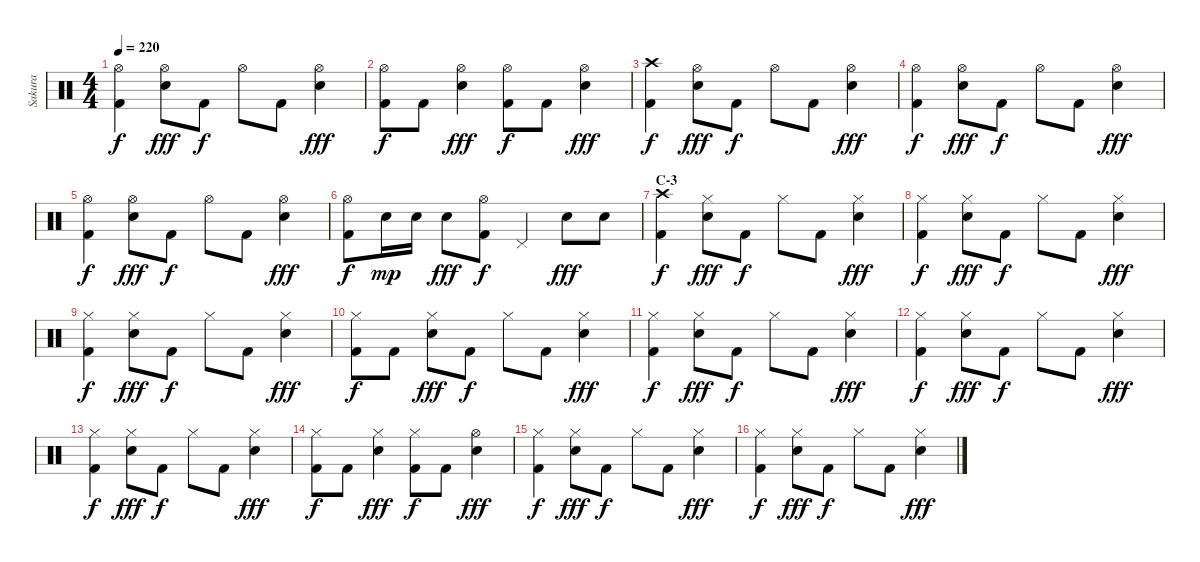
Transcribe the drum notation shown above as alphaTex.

\track ("Sakura" "Sakura") {instrument percussion}
\staff {score}
\articulation defaults
\ts (4 4)
\tempo 220
\clef neutral
\ks c
("Hi-Hat (open)" "Kick (hit) 2").4{dy f} ("Hi-Hat (open)" "Electric Snare (hit)").8{dy fff} "Kick (hit) 2".8{dy f} "Hi-Hat (open)".8 "Kick (hit) 2".8 ("Hi-Hat (open)" "Electric Snare (hit)").4{dy fff} |
("Hi-Hat (open)" "Kick (hit) 2").8{dy f} "Kick (hit) 2".8 ("Hi-Hat (open)" "Electric Snare (hit)").4{dy fff} ("Hi-Hat (open)" "Kick (hit) 2").8{dy f} "Kick (hit) 2".8 ("Hi-Hat (open)" "Electric Snare (hit)").4{dy fff} |
("Crash high (hit)" "Kick (hit) 2").4{dy f} ("Hi-Hat (open)" "Electric Snare (hit)").8{dy fff} "Kick (hit) 2".8{dy f} "Hi-Hat (open)".8 "Kick (hit) 2".8 ("Hi-Hat (open)" "Electric Snare (hit)").4{dy fff} |
("Hi-Hat (open)" "Kick (hit) 2").4{dy f} ("Hi-Hat (open)" "Electric Snare (hit)").8{dy fff} "Kick (hit) 2".8{dy f} "Hi-Hat (open)".8 "Kick (hit) 2".8 ("Hi-Hat (open)" "Electric Snare (hit)").4{dy fff} |
("Hi-Hat (open)" "Kick (hit) 2").4{dy f} ("Hi-Hat (open)" "Electric Snare (hit)").8{dy fff} "Kick (hit) 2".8{dy f} "Hi-Hat (open)".8 "Kick (hit) 2".8 ("Hi-Hat (open)" "Electric Snare (hit)").4{dy fff} |
("Hi-Hat (open)" "Kick (hit) 2").8{dy f} "Electric Snare (hit)".16{dy mp} "Electric Snare (hit)".16 "Electric Snare (hit)".8{dy fff} ("Hi-Hat (open)" "Kick (hit) 2").8{dy f} "Pedal Hi-Hat (hit)".4 "Electric Snare (hit)".8{dy fff} "Electric Snare (hit)".8 |
\section ("" "C-3")
("Crash high (hit)" "Kick (hit) 2").4{dy f} ("Hi-Hat (closed)" "Electric Snare (hit)").8{dy fff} "Kick (hit) 2".8{dy f} "Hi-Hat (closed)".8 "Kick (hit) 2".8 ("Hi-Hat (closed)" "Electric Snare (hit)").4{dy fff} |
("Hi-Hat (closed)" "Kick (hit) 2").4{dy f} ("Hi-Hat (closed)" "Electric Snare (hit)").8{dy fff} "Kick (hit) 2".8{dy f} "Hi-Hat (closed)".8 "Kick (hit) 2".8 ("Hi-Hat (closed)" "Electric Snare (hit)").4{dy fff} |
("Hi-Hat (closed)" "Kick (hit) 2").4{dy f} ("Hi-Hat (closed)" "Electric Snare (hit)").8{dy fff} "Kick (hit) 2".8{dy f} "Hi-Hat (closed)".8 "Kick (hit) 2".8 ("Hi-Hat (closed)" "Electric Snare (hit)").4{dy fff} |
("Hi-Hat (closed)" "Kick (hit) 2").8{dy f} "Kick (hit) 2".8 ("Hi-Hat (closed)" "Electric Snare (hit)").8{dy fff} "Kick (hit) 2".8{dy f} "Hi-Hat (closed)".8 "Kick (hit) 2".8 ("Hi-Hat (closed)" "Electric Snare (hit)").4{dy fff} |
("Hi-Hat (closed)" "Kick (hit) 2").4{dy f} ("Hi-Hat (closed)" "Electric Snare (hit)").8{dy fff} "Kick (hit) 2".8{dy f} "Hi-Hat (closed)".8 "Kick (hit) 2".8 ("Hi-Hat (closed)" "Electric Snare (hit)").4{dy fff} |
("Hi-Hat (closed)" "Kick (hit) 2").4{dy f} ("Hi-Hat (closed)" "Electric Snare (hit)").8{dy fff} "Kick (hit) 2".8{dy f} "Hi-Hat (closed)".8 "Kick (hit) 2".8 ("Hi-Hat (closed)" "Electric Snare (hit)").4{dy fff} |
("Hi-Hat (closed)" "Kick (hit) 2").4{dy f} ("Hi-Hat (closed)" "Electric Snare (hit)").8{dy fff} "Kick (hit) 2".8{dy f} "Hi-Hat (closed)".8 "Kick (hit) 2".8 ("Hi-Hat (closed)" "Electric Snare (hit)").4{dy fff} |
("Hi-Hat (closed)" "Kick (hit) 2").8{dy f} "Kick (hit) 2".8 ("Hi-Hat (closed)" "Electric Snare (hit)").4{dy fff} ("Hi-Hat (closed)" "Kick (hit) 2").8{dy f} "Kick (hit) 2".8 ("Hi-Hat (open)" "Electric Snare (hit)").4{dy fff} |
("Hi-Hat (closed)" "Kick (hit) 2").4{dy f} ("Hi-Hat (closed)" "Electric Snare (hit)").8{dy fff} "Kick (hit) 2".8{dy f} "Hi-Hat (closed)".8 "Kick (hit) 2".8 ("Hi-Hat (closed)" "Electric Snare (hit)").4{dy fff} |
("Hi-Hat (closed)" "Kick (hit) 2").4{dy f} ("Hi-Hat (closed)" "Electric Snare (hit)").8{dy fff} "Kick (hit) 2".8{dy f} "Hi-Hat (closed)".8 "Kick (hit) 2".8 ("Hi-Hat (closed)" "Electric Snare (hit)").4{dy fff}
